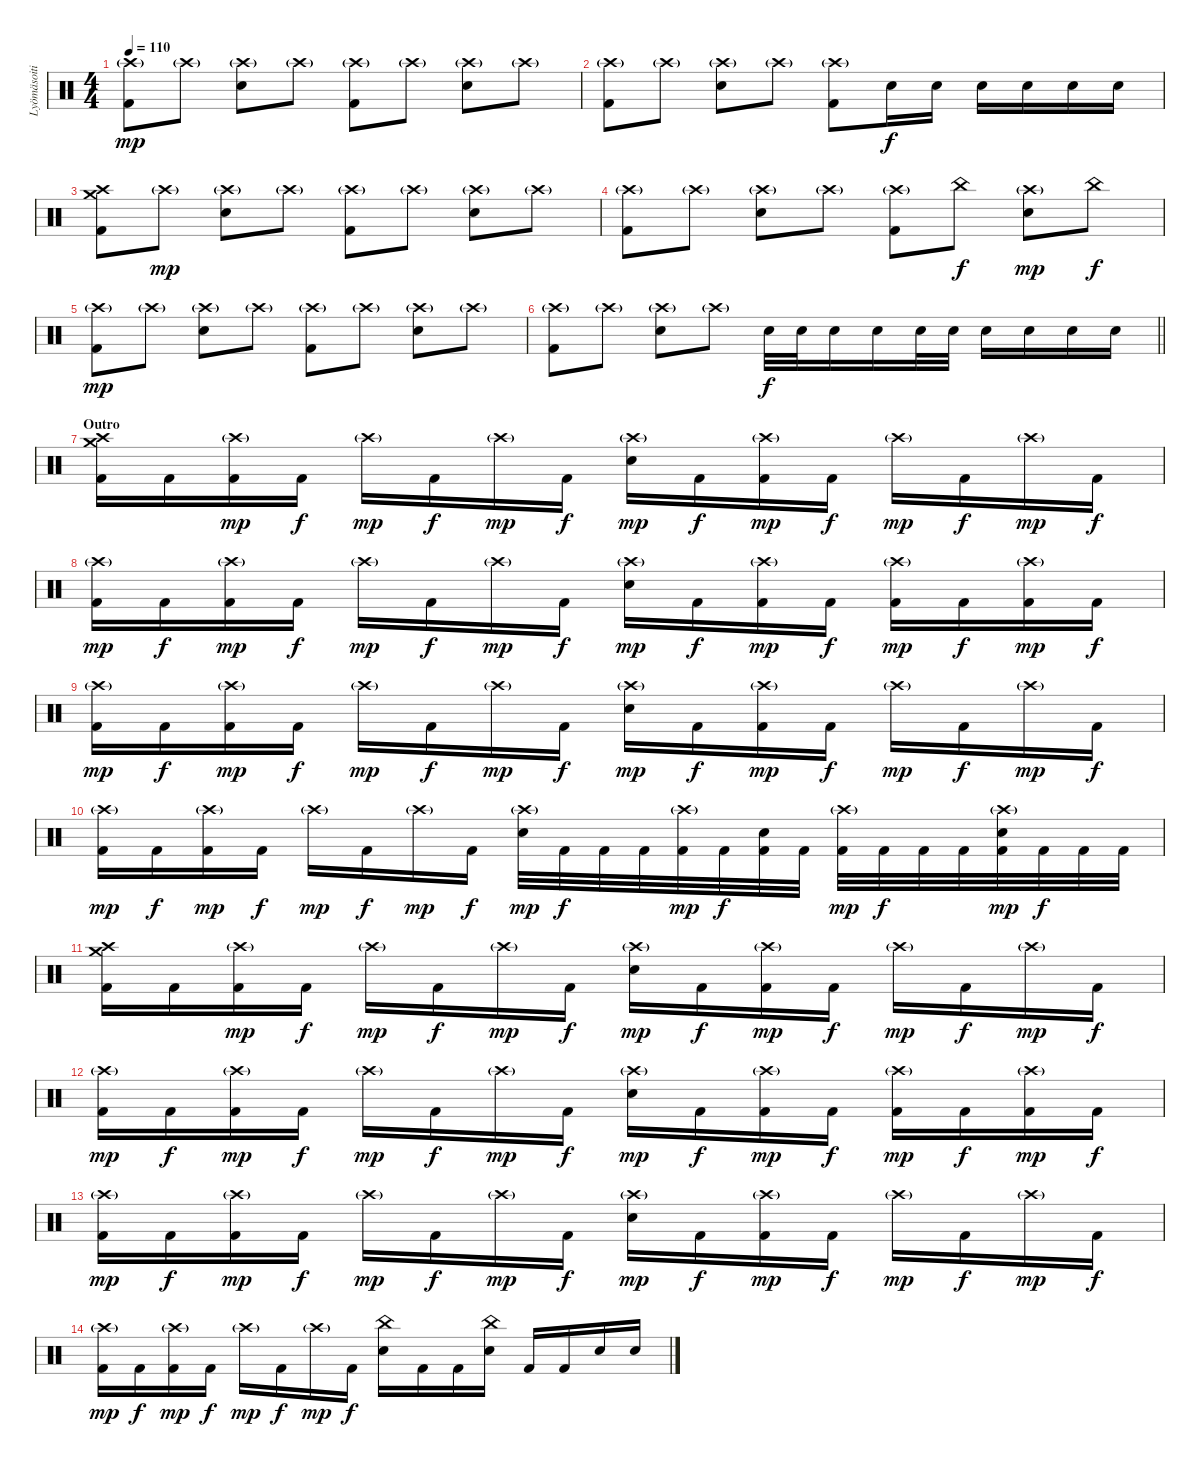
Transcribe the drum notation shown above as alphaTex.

\track ("Lyömäsoitin" "Lyömäsoiti") {instrument percussion}
\staff {score}
\articulation defaults
\ts (4 4)
\tempo 110
\clef neutral
\ks c
("Crash high (hit)"{g} "Kick (hit) 2").8{dy mp} "Crash high (hit)"{g}.8 ("Crash high (hit)"{g} "Electric Snare (hit)").8 "Crash high (hit)"{g}.8 ("Crash high (hit)"{g} "Kick (hit) 2").8 "Crash high (hit)"{g}.8 ("Crash high (hit)"{g} "Electric Snare (hit)").8 "Crash high (hit)"{g}.8 |
("Crash high (hit)"{g} "Kick (hit) 2").8 "Crash high (hit)"{g}.8 ("Crash high (hit)"{g} "Electric Snare (hit)").8 "Crash high (hit)"{g}.8 ("Crash high (hit)"{g} "Kick (hit) 2").8 "Electric Snare (hit)".16{dy f} "Electric Snare (hit)".16 "Electric Snare (hit)".16 "Electric Snare (hit)".16 "Electric Snare (hit)".16 "Electric Snare (hit)".16 |
("Crash medium (hit)" "Crash high (hit)" "Kick (hit) 2").8 "Crash high (hit)"{g}.8{dy mp} ("Crash high (hit)"{g} "Electric Snare (hit)").8 "Crash high (hit)"{g}.8 ("Crash high (hit)"{g} "Kick (hit) 2").8 "Crash high (hit)"{g}.8 ("Crash high (hit)"{g} "Electric Snare (hit)").8 "Crash high (hit)"{g}.8 |
("Crash high (hit)"{g} "Kick (hit) 2").8 "Crash high (hit)"{g}.8 ("Crash high (hit)"{g} "Electric Snare (hit)").8 "Crash high (hit)"{g}.8 ("Crash high (hit)"{g} "Kick (hit) 2").8 "China (hit)".8{dy f} ("Crash high (hit)"{g} "Electric Snare (hit)").8{dy mp} "China (hit)".8{dy f} |
("Crash high (hit)"{g} "Kick (hit) 2").8{dy mp} "Crash high (hit)"{g}.8 ("Crash high (hit)"{g} "Electric Snare (hit)").8 "Crash high (hit)"{g}.8 ("Crash high (hit)"{g} "Kick (hit) 2").8 "Crash high (hit)"{g}.8 ("Crash high (hit)"{g} "Electric Snare (hit)").8 "Crash high (hit)"{g}.8 |
\barLineRight lightlight
("Crash high (hit)"{g} "Kick (hit) 2").8 "Crash high (hit)"{g}.8 ("Crash high (hit)"{g} "Electric Snare (hit)").8 "Crash high (hit)"{g}.8 "Electric Snare (hit)".32{dy f} "Electric Snare (hit)".32 "Electric Snare (hit)".16 "Electric Snare (hit)".16 "Electric Snare (hit)".32 "Electric Snare (hit)".32 "Electric Snare (hit)".16 "Electric Snare (hit)".16 "Electric Snare (hit)".16 "Electric Snare (hit)".16 |
\section ("" "Outro")
("Crash medium (hit)" "Crash high (hit)" "Kick (hit) 2").16 "Kick (hit) 2".16 ("Crash high (hit)"{g} "Kick (hit) 2").16{dy mp} "Kick (hit) 2".16{dy f} "Crash high (hit)"{g}.16{dy mp} "Kick (hit) 2".16{dy f} "Crash high (hit)"{g}.16{dy mp} "Kick (hit) 2".16{dy f} ("Crash high (hit)"{g} "Electric Snare (hit)").16{dy mp} "Kick (hit) 2".16{dy f} ("Crash high (hit)"{g} "Kick (hit) 2").16{dy mp} "Kick (hit) 2".16{dy f} "Crash high (hit)"{g}.16{dy mp} "Kick (hit) 2".16{dy f} "Crash high (hit)"{g}.16{dy mp} "Kick (hit) 2".16{dy f} |
("Crash high (hit)"{g} "Kick (hit) 2").16{dy mp} "Kick (hit) 2".16{dy f} ("Crash high (hit)"{g} "Kick (hit) 2").16{dy mp} "Kick (hit) 2".16{dy f} "Crash high (hit)"{g}.16{dy mp} "Kick (hit) 2".16{dy f} "Crash high (hit)"{g}.16{dy mp} "Kick (hit) 2".16{dy f} ("Crash high (hit)"{g} "Electric Snare (hit)").16{dy mp} "Kick (hit) 2".16{dy f} ("Crash high (hit)"{g} "Kick (hit) 2").16{dy mp} "Kick (hit) 2".16{dy f} ("Crash high (hit)"{g} "Kick (hit) 2").16{dy mp} "Kick (hit) 2".16{dy f} ("Crash high (hit)"{g} "Kick (hit) 2").16{dy mp} "Kick (hit) 2".16{dy f} |
("Crash high (hit)"{g} "Kick (hit) 2").16{dy mp} "Kick (hit) 2".16{dy f} ("Crash high (hit)"{g} "Kick (hit) 2").16{dy mp} "Kick (hit) 2".16{dy f} "Crash high (hit)"{g}.16{dy mp} "Kick (hit) 2".16{dy f} "Crash high (hit)"{g}.16{dy mp} "Kick (hit) 2".16{dy f} ("Crash high (hit)"{g} "Electric Snare (hit)").16{dy mp} "Kick (hit) 2".16{dy f} ("Crash high (hit)"{g} "Kick (hit) 2").16{dy mp} "Kick (hit) 2".16{dy f} "Crash high (hit)"{g}.16{dy mp} "Kick (hit) 2".16{dy f} "Crash high (hit)"{g}.16{dy mp} "Kick (hit) 2".16{dy f} |
("Crash high (hit)"{g} "Kick (hit) 2").16{dy mp} "Kick (hit) 2".16{dy f} ("Crash high (hit)"{g} "Kick (hit) 2").16{dy mp} "Kick (hit) 2".16{dy f} "Crash high (hit)"{g}.16{dy mp} "Kick (hit) 2".16{dy f} "Crash high (hit)"{g}.16{dy mp} "Kick (hit) 2".16{dy f} ("Crash high (hit)"{g} "Electric Snare (hit)").32{dy mp} "Kick (hit) 2".32{dy f} "Kick (hit) 2".32 "Kick (hit) 2".32 ("Crash high (hit)"{g} "Kick (hit) 2").32{dy mp} "Kick (hit) 2".32{dy f} ("Electric Snare (hit)" "Kick (hit) 2").32 "Kick (hit) 2".32 ("Crash high (hit)"{g} "Kick (hit) 2").32{dy mp} "Kick (hit) 2".32{dy f} "Kick (hit) 2".32 "Kick (hit) 2".32 ("Crash high (hit)"{g} "Electric Snare (hit)" "Kick (hit) 2").32{dy mp} "Kick (hit) 2".32{dy f} "Kick (hit) 2".32 "Kick (hit) 2".32 |
("Crash medium (hit)" "Crash high (hit)" "Kick (hit) 2").16 "Kick (hit) 2".16 ("Crash high (hit)"{g} "Kick (hit) 2").16{dy mp} "Kick (hit) 2".16{dy f} "Crash high (hit)"{g}.16{dy mp} "Kick (hit) 2".16{dy f} "Crash high (hit)"{g}.16{dy mp} "Kick (hit) 2".16{dy f} ("Crash high (hit)"{g} "Electric Snare (hit)").16{dy mp} "Kick (hit) 2".16{dy f} ("Crash high (hit)"{g} "Kick (hit) 2").16{dy mp} "Kick (hit) 2".16{dy f} "Crash high (hit)"{g}.16{dy mp} "Kick (hit) 2".16{dy f} "Crash high (hit)"{g}.16{dy mp} "Kick (hit) 2".16{dy f} |
("Crash high (hit)"{g} "Kick (hit) 2").16{dy mp} "Kick (hit) 2".16{dy f} ("Crash high (hit)"{g} "Kick (hit) 2").16{dy mp} "Kick (hit) 2".16{dy f} "Crash high (hit)"{g}.16{dy mp} "Kick (hit) 2".16{dy f} "Crash high (hit)"{g}.16{dy mp} "Kick (hit) 2".16{dy f} ("Crash high (hit)"{g} "Electric Snare (hit)").16{dy mp} "Kick (hit) 2".16{dy f} ("Crash high (hit)"{g} "Kick (hit) 2").16{dy mp} "Kick (hit) 2".16{dy f} ("Crash high (hit)"{g} "Kick (hit) 2").16{dy mp} "Kick (hit) 2".16{dy f} ("Crash high (hit)"{g} "Kick (hit) 2").16{dy mp} "Kick (hit) 2".16{dy f} |
("Crash high (hit)"{g} "Kick (hit) 2").16{dy mp} "Kick (hit) 2".16{dy f} ("Crash high (hit)"{g} "Kick (hit) 2").16{dy mp} "Kick (hit) 2".16{dy f} "Crash high (hit)"{g}.16{dy mp} "Kick (hit) 2".16{dy f} "Crash high (hit)"{g}.16{dy mp} "Kick (hit) 2".16{dy f} ("Crash high (hit)"{g} "Electric Snare (hit)").16{dy mp} "Kick (hit) 2".16{dy f} ("Crash high (hit)"{g} "Kick (hit) 2").16{dy mp} "Kick (hit) 2".16{dy f} "Crash high (hit)"{g}.16{dy mp} "Kick (hit) 2".16{dy f} "Crash high (hit)"{g}.16{dy mp} "Kick (hit) 2".16{dy f} |
("Crash high (hit)"{g} "Kick (hit) 2").16{dy mp} "Kick (hit) 2".16{dy f} ("Crash high (hit)"{g} "Kick (hit) 2").16{dy mp} "Kick (hit) 2".16{dy f} "Crash high (hit)"{g}.16{dy mp} "Kick (hit) 2".16{dy f} "Crash high (hit)"{g}.16{dy mp} "Kick (hit) 2".16{dy f} ("China (hit)" "Electric Snare (hit)").16 "Kick (hit) 2".16 "Kick (hit) 2".16 ("China (hit)" "Electric Snare (hit)").16 "Kick (hit) 2".16 "Kick (hit) 2".16 "Electric Snare (hit)".16 "Electric Snare (hit)".16
